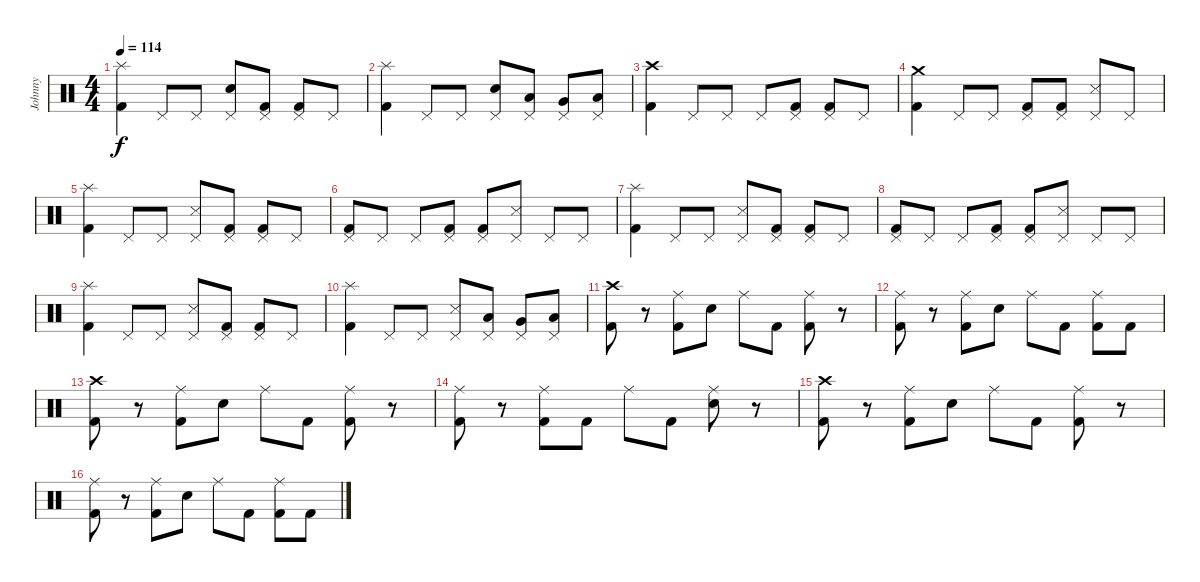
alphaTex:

\track ("Johnny" "Johnny") {instrument percussion}
\staff {score}
\articulation defaults
\ts (4 4)
\tempo 114
\clef neutral
\ks c
("Splash (hit)" "Kick (hit) 2").4{dy f} "Pedal Hi-Hat (hit)".8 "Pedal Hi-Hat (hit)".8 ("Pedal Hi-Hat (hit)" "Snare (hit) 2").8 ("Pedal Hi-Hat (hit)" "Kick (hit) 2").8 ("Pedal Hi-Hat (hit)" "Kick (hit) 2").8 "Pedal Hi-Hat (hit)".8 |
("Splash (hit)" "Kick (hit) 2").4 "Pedal Hi-Hat (hit)".8 "Pedal Hi-Hat (hit)".8 ("Pedal Hi-Hat (hit)" "Snare (hit) 2").8 ("Pedal Hi-Hat (hit)" "Low Tom (hit)").8 ("Pedal Hi-Hat (hit)" "Very Low Tom (hit)").8 ("Pedal Hi-Hat (hit)" "Low Floor Tom (hit)").8 |
("Crash high (hit)" "Kick (hit) 2").4 "Pedal Hi-Hat (hit)".8 "Pedal Hi-Hat (hit)".8 "Pedal Hi-Hat (hit)".8 ("Pedal Hi-Hat (hit)" "Kick (hit) 2").8 ("Pedal Hi-Hat (hit)" "Kick (hit) 2").8 "Pedal Hi-Hat (hit)".8 |
("Crash medium (hit)" "Kick (hit) 2").4 "Pedal Hi-Hat (hit)".8 "Pedal Hi-Hat (hit)".8 ("Pedal Hi-Hat (hit)" "Kick (hit) 2").8 ("Pedal Hi-Hat (hit)" "Kick (hit) 2").8 ("Pedal Hi-Hat (hit)" "Snare (side stick) 3").8 "Pedal Hi-Hat (hit)".8 |
("Splash (hit)" "Kick (hit) 2").4 "Pedal Hi-Hat (hit)".8 "Pedal Hi-Hat (hit)".8 ("Pedal Hi-Hat (hit)" "Snare (side stick) 3").8 ("Pedal Hi-Hat (hit)" "Kick (hit) 2").8 ("Pedal Hi-Hat (hit)" "Kick (hit) 2").8 "Pedal Hi-Hat (hit)".8 |
("Pedal Hi-Hat (hit)" "Kick (hit) 2").8 "Pedal Hi-Hat (hit)".8 "Pedal Hi-Hat (hit)".8 ("Pedal Hi-Hat (hit)" "Kick (hit) 2").8 ("Pedal Hi-Hat (hit)" "Kick (hit) 2").8 ("Pedal Hi-Hat (hit)" "Snare (side stick) 3").8 "Pedal Hi-Hat (hit)".8 "Pedal Hi-Hat (hit)".8 |
("Splash (hit)" "Kick (hit) 2").4 "Pedal Hi-Hat (hit)".8 "Pedal Hi-Hat (hit)".8 ("Pedal Hi-Hat (hit)" "Snare (side stick) 3").8 ("Pedal Hi-Hat (hit)" "Kick (hit) 2").8 ("Pedal Hi-Hat (hit)" "Kick (hit) 2").8 "Pedal Hi-Hat (hit)".8 |
("Pedal Hi-Hat (hit)" "Kick (hit) 2").8 "Pedal Hi-Hat (hit)".8 "Pedal Hi-Hat (hit)".8 ("Pedal Hi-Hat (hit)" "Kick (hit) 2").8 ("Pedal Hi-Hat (hit)" "Kick (hit) 2").8 ("Pedal Hi-Hat (hit)" "Snare (side stick) 3").8 "Pedal Hi-Hat (hit)".8 "Pedal Hi-Hat (hit)".8 |
("Splash (hit)" "Kick (hit) 2").4 "Pedal Hi-Hat (hit)".8 "Pedal Hi-Hat (hit)".8 ("Pedal Hi-Hat (hit)" "Snare (side stick) 3").8 ("Pedal Hi-Hat (hit)" "Kick (hit) 2").8 ("Pedal Hi-Hat (hit)" "Kick (hit) 2").8 "Pedal Hi-Hat (hit)".8 |
("Splash (hit)" "Kick (hit) 2").4 "Pedal Hi-Hat (hit)".8 "Pedal Hi-Hat (hit)".8 ("Pedal Hi-Hat (hit)" "Snare (side stick) 3").8 ("Pedal Hi-Hat (hit)" "Low Tom (hit)").8 ("Pedal Hi-Hat (hit)" "Very Low Tom (hit)").8 ("Pedal Hi-Hat (hit)" "Low Floor Tom (hit)").8 |
("Crash high (hit)" "Kick (hit) 2").8 r.8 ("Ride (middle)" "Kick (hit) 2").8 "Electric Snare (hit)".8 "Ride (middle)".8 "Kick (hit) 2".8 ("Ride (middle)" "Kick (hit) 2").8 r.8 |
("Ride (middle)" "Kick (hit) 2").8 r.8 ("Ride (middle)" "Kick (hit) 2").8 "Electric Snare (hit)".8 "Ride (middle)".8 "Kick (hit) 2".8 ("Ride (middle)" "Kick (hit) 2").8 "Kick (hit) 2".8 |
("Crash high (hit)" "Kick (hit) 2").8 r.8 ("Ride (middle)" "Kick (hit) 2").8 "Electric Snare (hit)".8 "Ride (middle)".8 "Kick (hit) 2".8 ("Ride (middle)" "Kick (hit) 2").8 r.8 |
("Ride (middle)" "Kick (hit) 2").8 r.8 ("Ride (middle)" "Kick (hit) 2").8 "Kick (hit) 2".8 "Ride (middle)".8 "Kick (hit) 2".8 ("Ride (middle)" "Electric Snare (hit)").8 r.8 |
("Crash high (hit)" "Kick (hit) 2").8 r.8 ("Ride (middle)" "Kick (hit) 2").8 "Electric Snare (hit)".8 "Ride (middle)".8 "Kick (hit) 2".8 ("Ride (middle)" "Kick (hit) 2").8 r.8 |
("Ride (middle)" "Kick (hit) 2").8 r.8 ("Ride (middle)" "Kick (hit) 2").8 "Electric Snare (hit)".8 "Ride (middle)".8 "Kick (hit) 2".8 ("Ride (middle)" "Kick (hit) 2").8 "Kick (hit) 2".8
